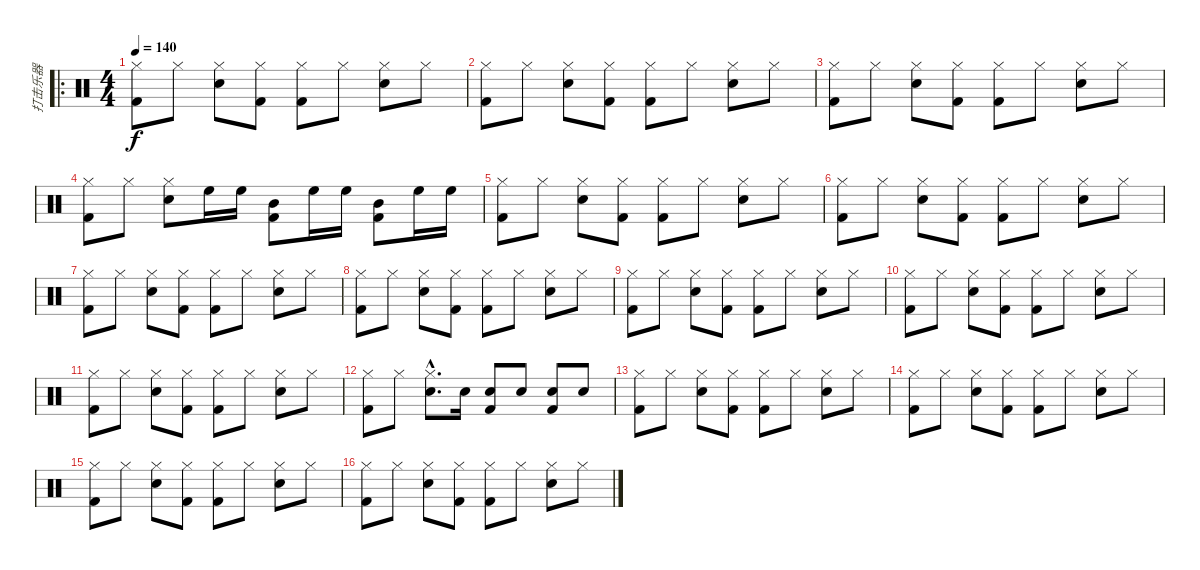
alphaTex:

\track ("打击乐器" "打击乐器") {instrument percussion}
\staff {score}
\articulation defaults
\ro
\ts (4 4)
\tempo 140
\clef neutral
\ks c
("Hi-Hat (closed)" "Kick (hit) 2").8{dy f} "Hi-Hat (closed)".8 ("Hi-Hat (closed)" "Snare (hit) 2").8 ("Hi-Hat (closed)" "Kick (hit) 2").8 ("Hi-Hat (closed)" "Kick (hit) 2").8 "Hi-Hat (closed)".8 ("Hi-Hat (closed)" "Snare (hit) 2").8 "Hi-Hat (closed)".8 |
("Hi-Hat (closed)" "Kick (hit) 2").8 "Hi-Hat (closed)".8 ("Hi-Hat (closed)" "Snare (hit) 2").8 ("Hi-Hat (closed)" "Kick (hit) 2").8 ("Hi-Hat (closed)" "Kick (hit) 2").8 "Hi-Hat (closed)".8 ("Hi-Hat (closed)" "Snare (hit) 2").8 "Hi-Hat (closed)".8 |
("Hi-Hat (closed)" "Kick (hit) 2").8 "Hi-Hat (closed)".8 ("Hi-Hat (closed)" "Snare (hit) 2").8 ("Hi-Hat (closed)" "Kick (hit) 2").8 ("Hi-Hat (closed)" "Kick (hit) 2").8 "Hi-Hat (closed)".8 ("Hi-Hat (closed)" "Snare (hit) 2").8 "Hi-Hat (closed)".8 |
("Hi-Hat (closed)" "Kick (hit) 2").8 "Hi-Hat (closed)".8 ("Hi-Hat (closed)" "Snare (hit) 2").8 "High Floor Tom (hit)".16 "High Floor Tom (hit)".16 ("Mid Tom (hit)" "Kick (hit) 2").8 "High Floor Tom (hit)".16 "High Floor Tom (hit)".16 ("Mid Tom (hit)" "Kick (hit) 2").8 "High Floor Tom (hit)".16 "High Floor Tom (hit)".16 |
("Hi-Hat (closed)" "Kick (hit) 2").8 "Hi-Hat (closed)".8 ("Hi-Hat (closed)" "Snare (hit) 2").8 ("Hi-Hat (closed)" "Kick (hit) 2").8 ("Hi-Hat (closed)" "Kick (hit) 2").8 "Hi-Hat (closed)".8 ("Hi-Hat (closed)" "Snare (hit) 2").8 "Hi-Hat (closed)".8 |
("Hi-Hat (closed)" "Kick (hit) 2").8 "Hi-Hat (closed)".8 ("Hi-Hat (closed)" "Snare (hit) 2").8 ("Hi-Hat (closed)" "Kick (hit) 2").8 ("Hi-Hat (closed)" "Kick (hit) 2").8 "Hi-Hat (closed)".8 ("Hi-Hat (closed)" "Snare (hit) 2").8 "Hi-Hat (closed)".8 |
("Hi-Hat (closed)" "Kick (hit) 2").8 "Hi-Hat (closed)".8 ("Hi-Hat (closed)" "Snare (hit) 2").8 ("Hi-Hat (closed)" "Kick (hit) 2").8 ("Hi-Hat (closed)" "Kick (hit) 2").8 "Hi-Hat (closed)".8 ("Hi-Hat (closed)" "Snare (hit) 2").8 "Hi-Hat (closed)".8 |
("Hi-Hat (closed)" "Kick (hit) 2").8 "Hi-Hat (closed)".8 ("Hi-Hat (closed)" "Snare (hit) 2").8 ("Hi-Hat (closed)" "Kick (hit) 2").8 ("Hi-Hat (closed)" "Kick (hit) 2").8 "Hi-Hat (closed)".8 ("Hi-Hat (closed)" "Snare (hit) 2").8 "Hi-Hat (closed)".8 |
("Hi-Hat (closed)" "Kick (hit) 2").8 "Hi-Hat (closed)".8 ("Hi-Hat (closed)" "Snare (hit) 2").8 ("Hi-Hat (closed)" "Kick (hit) 2").8 ("Hi-Hat (closed)" "Kick (hit) 2").8 "Hi-Hat (closed)".8 ("Hi-Hat (closed)" "Snare (hit) 2").8 "Hi-Hat (closed)".8 |
("Hi-Hat (closed)" "Kick (hit) 2").8 "Hi-Hat (closed)".8 ("Hi-Hat (closed)" "Snare (hit) 2").8 ("Hi-Hat (closed)" "Kick (hit) 2").8 ("Hi-Hat (closed)" "Kick (hit) 2").8 "Hi-Hat (closed)".8 ("Hi-Hat (closed)" "Snare (hit) 2").8 "Hi-Hat (closed)".8 |
("Hi-Hat (closed)" "Kick (hit) 2").8 "Hi-Hat (closed)".8 ("Hi-Hat (closed)" "Snare (hit) 2").8 ("Hi-Hat (closed)" "Kick (hit) 2").8 ("Hi-Hat (closed)" "Kick (hit) 2").8 "Hi-Hat (closed)".8 ("Hi-Hat (closed)" "Snare (hit) 2").8 "Hi-Hat (closed)".8 |
("Hi-Hat (closed)" "Kick (hit) 2").8 "Hi-Hat (closed)".8 ("Hi-Hat (closed)"{hac} "Snare (hit) 2"{hac}).8{d} "Snare (hit) 2".16 ("Snare (hit) 2" "Kick (hit) 2").8 "Snare (hit) 2".8 ("Snare (hit) 2" "Kick (hit) 2").8 "Snare (hit) 2".8 |
("Hi-Hat (closed)" "Kick (hit) 2").8 "Hi-Hat (closed)".8 ("Hi-Hat (closed)" "Snare (hit) 2").8 ("Hi-Hat (closed)" "Kick (hit) 2").8 ("Hi-Hat (closed)" "Kick (hit) 2").8 "Hi-Hat (closed)".8 ("Hi-Hat (closed)" "Snare (hit) 2").8 "Hi-Hat (closed)".8 |
("Hi-Hat (closed)" "Kick (hit) 2").8 "Hi-Hat (closed)".8 ("Hi-Hat (closed)" "Snare (hit) 2").8 ("Hi-Hat (closed)" "Kick (hit) 2").8 ("Hi-Hat (closed)" "Kick (hit) 2").8 "Hi-Hat (closed)".8 ("Hi-Hat (closed)" "Snare (hit) 2").8 "Hi-Hat (closed)".8 |
("Hi-Hat (closed)" "Kick (hit) 2").8 "Hi-Hat (closed)".8 ("Hi-Hat (closed)" "Snare (hit) 2").8 ("Hi-Hat (closed)" "Kick (hit) 2").8 ("Hi-Hat (closed)" "Kick (hit) 2").8 "Hi-Hat (closed)".8 ("Hi-Hat (closed)" "Snare (hit) 2").8 "Hi-Hat (closed)".8 |
("Hi-Hat (closed)" "Kick (hit) 2").8 "Hi-Hat (closed)".8 ("Hi-Hat (closed)" "Snare (hit) 2").8 ("Hi-Hat (closed)" "Kick (hit) 2").8 ("Hi-Hat (closed)" "Kick (hit) 2").8 "Hi-Hat (closed)".8 ("Hi-Hat (closed)" "Snare (hit) 2").8 "Hi-Hat (closed)".8
